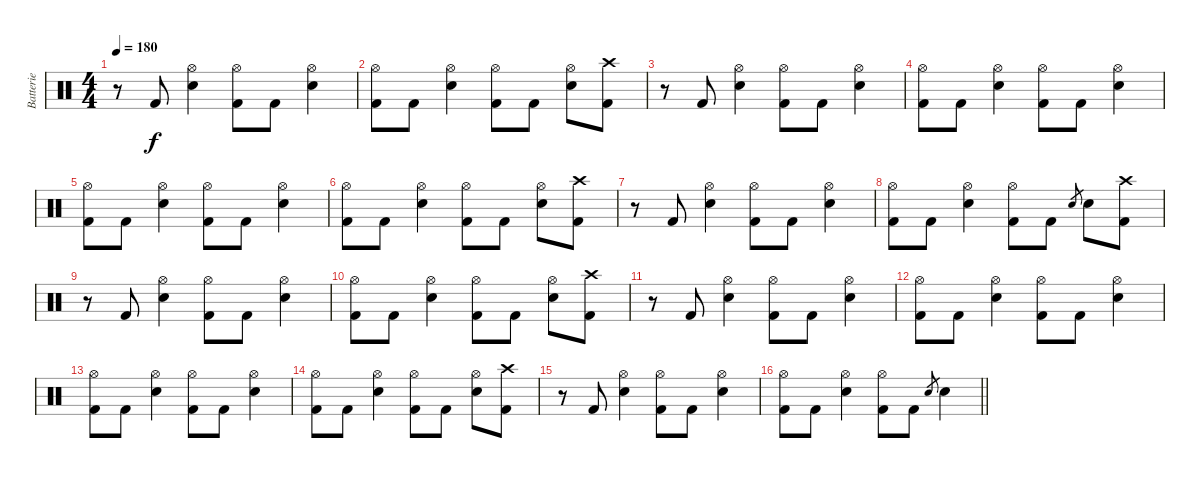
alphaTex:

\track ("Batterie" "Batterie") {instrument percussion}
\staff {score}
\articulation defaults
\ts (4 4)
\tempo 180
\clef neutral
\ks c
r.8{dy f} "Kick (hit) 2".8 ("Hi-Hat (open)" "Electric Snare (hit)").4 ("Hi-Hat (open)" "Kick (hit) 2").8 "Kick (hit) 2".8 ("Hi-Hat (open)" "Electric Snare (hit)").4 |
("Hi-Hat (open)" "Kick (hit) 2").8 "Kick (hit) 2".8 ("Hi-Hat (open)" "Electric Snare (hit)").4 ("Hi-Hat (open)" "Kick (hit) 2").8 "Kick (hit) 2".8 ("Hi-Hat (open)" "Electric Snare (hit)").8 ("Crash high (hit)" "Kick (hit) 2").8 |
r.8 "Kick (hit) 2".8 ("Hi-Hat (open)" "Electric Snare (hit)").4 ("Hi-Hat (open)" "Kick (hit) 2").8 "Kick (hit) 2".8 ("Hi-Hat (open)" "Electric Snare (hit)").4 |
("Hi-Hat (open)" "Kick (hit) 2").8 "Kick (hit) 2".8 ("Hi-Hat (open)" "Electric Snare (hit)").4 ("Hi-Hat (open)" "Kick (hit) 2").8 "Kick (hit) 2".8 ("Hi-Hat (open)" "Electric Snare (hit)").4 |
("Hi-Hat (open)" "Kick (hit) 2").8 "Kick (hit) 2".8 ("Hi-Hat (open)" "Electric Snare (hit)").4 ("Hi-Hat (open)" "Kick (hit) 2").8 "Kick (hit) 2".8 ("Hi-Hat (open)" "Electric Snare (hit)").4 |
("Hi-Hat (open)" "Kick (hit) 2").8 "Kick (hit) 2".8 ("Hi-Hat (open)" "Electric Snare (hit)").4 ("Hi-Hat (open)" "Kick (hit) 2").8 "Kick (hit) 2".8 ("Hi-Hat (open)" "Electric Snare (hit)").8 ("Crash high (hit)" "Kick (hit) 2").8 |
r.8 "Kick (hit) 2".8 ("Hi-Hat (open)" "Electric Snare (hit)").4 ("Hi-Hat (open)" "Kick (hit) 2").8 "Kick (hit) 2".8 ("Hi-Hat (open)" "Electric Snare (hit)").4 |
("Hi-Hat (open)" "Kick (hit) 2").8 "Kick (hit) 2".8 ("Hi-Hat (open)" "Electric Snare (hit)").4 ("Hi-Hat (open)" "Kick (hit) 2").8 "Kick (hit) 2".8 "Electric Snare (hit)".8{gr} "Electric Snare (hit)".8 ("Crash high (hit)" "Kick (hit) 2").8 |
r.8 "Kick (hit) 2".8 ("Hi-Hat (open)" "Electric Snare (hit)").4 ("Hi-Hat (open)" "Kick (hit) 2").8 "Kick (hit) 2".8 ("Hi-Hat (open)" "Electric Snare (hit)").4 |
("Hi-Hat (open)" "Kick (hit) 2").8 "Kick (hit) 2".8 ("Hi-Hat (open)" "Electric Snare (hit)").4 ("Hi-Hat (open)" "Kick (hit) 2").8 "Kick (hit) 2".8 ("Hi-Hat (open)" "Electric Snare (hit)").8 ("Crash high (hit)" "Kick (hit) 2").8 |
r.8 "Kick (hit) 2".8 ("Hi-Hat (open)" "Electric Snare (hit)").4 ("Hi-Hat (open)" "Kick (hit) 2").8 "Kick (hit) 2".8 ("Hi-Hat (open)" "Electric Snare (hit)").4 |
("Hi-Hat (open)" "Kick (hit) 2").8 "Kick (hit) 2".8 ("Hi-Hat (open)" "Electric Snare (hit)").4 ("Hi-Hat (open)" "Kick (hit) 2").8 "Kick (hit) 2".8 ("Hi-Hat (open)" "Electric Snare (hit)").4 |
("Hi-Hat (open)" "Kick (hit) 2").8 "Kick (hit) 2".8 ("Hi-Hat (open)" "Electric Snare (hit)").4 ("Hi-Hat (open)" "Kick (hit) 2").8 "Kick (hit) 2".8 ("Hi-Hat (open)" "Electric Snare (hit)").4 |
("Hi-Hat (open)" "Kick (hit) 2").8 "Kick (hit) 2".8 ("Hi-Hat (open)" "Electric Snare (hit)").4 ("Hi-Hat (open)" "Kick (hit) 2").8 "Kick (hit) 2".8 ("Hi-Hat (open)" "Electric Snare (hit)").8 ("Crash high (hit)" "Kick (hit) 2").8 |
r.8 "Kick (hit) 2".8 ("Hi-Hat (open)" "Electric Snare (hit)").4 ("Hi-Hat (open)" "Kick (hit) 2").8 "Kick (hit) 2".8 ("Hi-Hat (open)" "Electric Snare (hit)").4 |
\barLineRight lightlight
("Hi-Hat (open)" "Kick (hit) 2").8 "Kick (hit) 2".8 ("Hi-Hat (open)" "Electric Snare (hit)").4 ("Hi-Hat (open)" "Kick (hit) 2").8 "Kick (hit) 2".8 "Electric Snare (hit)".8{gr} "Electric Snare (hit)".4
